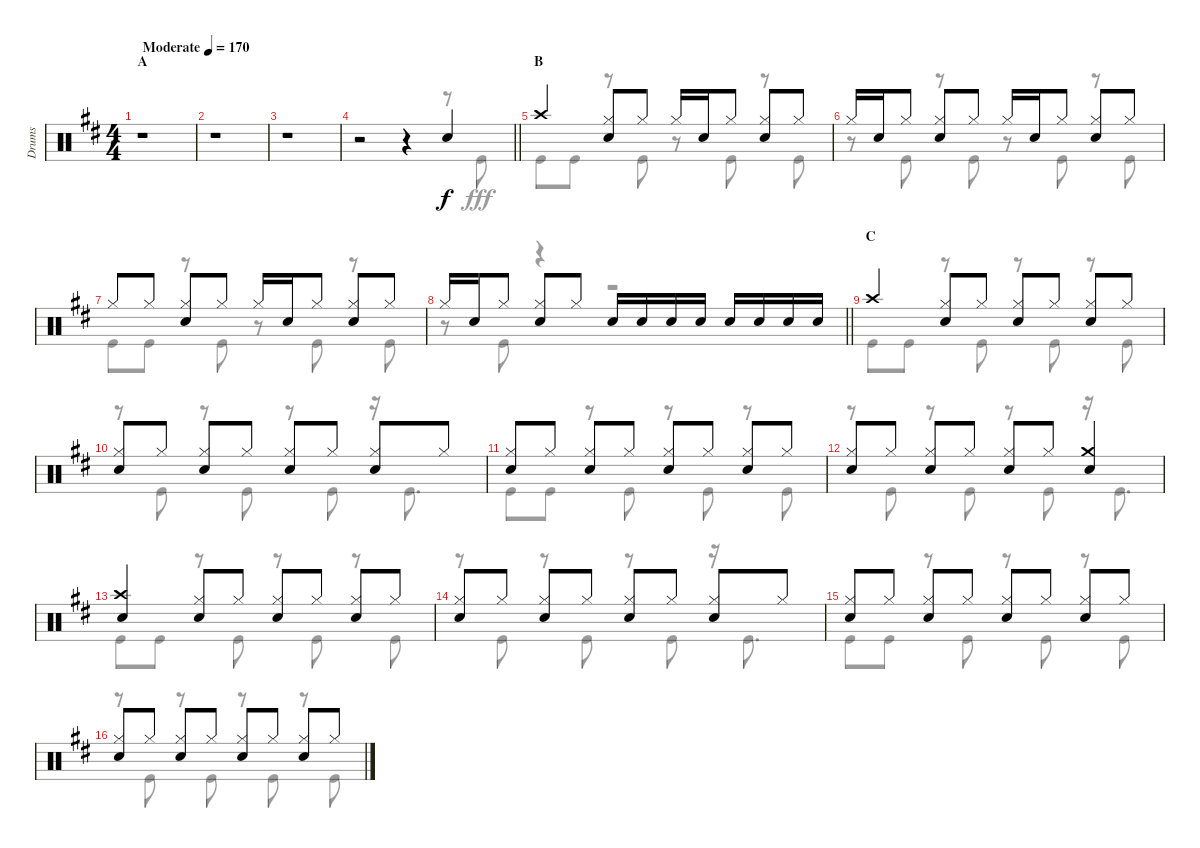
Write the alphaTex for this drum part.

\track ("Drums" "Drums") {instrument percussion}
\staff {score}
\articulation defaults
\voice
\ts (4 4)
\section ("" "A")
\tempo (170 "Moderate")
\clef neutral
\ks d
r.1{dy f} |
r.1 |
r.1 |
\barLineRight lightlight
r.2 r.4 "Snare (hit) 2".4 |
\section ("" "B")
"Crash high (hit)".4 ("Hi-Hat (closed)" "Snare (hit) 2").8 "Hi-Hat (closed)".8 "Hi-Hat (closed)".16 "Snare (hit) 2".16 "Hi-Hat (closed)".8 ("Hi-Hat (closed)" "Snare (hit) 2").8 "Hi-Hat (closed)".8 |
"Hi-Hat (closed)".16 "Snare (hit) 2".16 "Hi-Hat (closed)".8 ("Hi-Hat (closed)" "Snare (hit) 2").8 "Hi-Hat (closed)".8 "Hi-Hat (closed)".16 "Snare (hit) 2".16 "Hi-Hat (closed)".8 ("Hi-Hat (closed)" "Snare (hit) 2").8 "Hi-Hat (closed)".8 |
"Hi-Hat (closed)".8 "Hi-Hat (closed)".8 ("Hi-Hat (closed)" "Snare (hit) 2").8 "Hi-Hat (closed)".8 "Hi-Hat (closed)".16 "Snare (hit) 2".16 "Hi-Hat (closed)".8 ("Hi-Hat (closed)" "Snare (hit) 2").8 "Hi-Hat (closed)".8 |
\barLineRight lightlight "Hi-Hat (closed)".16 "Snare (hit) 2".16 "Hi-Hat (closed)".8
("Hi-Hat (closed)" "Snare (hit) 2").8 "Hi-Hat (closed)".8 "Snare (hit) 2".16 "Snare (hit) 2".16 "Snare (hit) 2".16 "Snare (hit) 2".16 "Snare (hit) 2".16 "Snare (hit) 2".16 "Snare (hit) 2".16 "Snare (hit) 2".16 |
\section ("" "C")
"Crash high (hit)".4 ("Hi-Hat (closed)" "Snare (hit) 2").8 "Hi-Hat (closed)".8 ("Hi-Hat (closed)" "Snare (hit) 2").8 "Hi-Hat (closed)".8 ("Hi-Hat (closed)" "Snare (hit) 2").8 "Hi-Hat (closed)".8 |
("Hi-Hat (closed)" "Snare (hit) 2").8 "Hi-Hat (closed)".8 ("Hi-Hat (closed)" "Snare (hit) 2").8 "Hi-Hat (closed)".8 ("Hi-Hat (closed)" "Snare (hit) 2").8 "Hi-Hat (closed)".8 ("Hi-Hat (closed)" "Snare (hit) 2").8 "Hi-Hat (closed)".8 |
("Hi-Hat (closed)" "Snare (hit) 2").8 "Hi-Hat (closed)".8 ("Hi-Hat (closed)" "Snare (hit) 2").8 "Hi-Hat (closed)".8 ("Hi-Hat (closed)" "Snare (hit) 2").8 "Hi-Hat (closed)".8 ("Hi-Hat (closed)" "Snare (hit) 2").8 "Hi-Hat (closed)".8 |
("Hi-Hat (closed)" "Snare (hit) 2").8 "Hi-Hat (closed)".8 ("Hi-Hat (closed)" "Snare (hit) 2").8 "Hi-Hat (closed)".8 ("Hi-Hat (closed)" "Snare (hit) 2").8 "Hi-Hat (closed)".8 ("Crash medium (hit)" "Snare (hit) 2").4 |
("Crash high (hit)" "Snare (hit) 2").4 ("Hi-Hat (closed)" "Snare (hit) 2").8 "Hi-Hat (closed)".8 ("Hi-Hat (closed)" "Snare (hit) 2").8 "Hi-Hat (closed)".8 ("Hi-Hat (closed)" "Snare (hit) 2").8 "Hi-Hat (closed)".8 |
("Hi-Hat (closed)" "Snare (hit) 2").8 "Hi-Hat (closed)".8 ("Hi-Hat (closed)" "Snare (hit) 2").8 "Hi-Hat (closed)".8 ("Hi-Hat (closed)" "Snare (hit) 2").8 "Hi-Hat (closed)".8 ("Hi-Hat (closed)" "Snare (hit) 2").8 "Hi-Hat (closed)".8 |
("Hi-Hat (closed)" "Snare (hit) 2").8 "Hi-Hat (closed)".8 ("Hi-Hat (closed)" "Snare (hit) 2").8 "Hi-Hat (closed)".8 ("Hi-Hat (closed)" "Snare (hit) 2").8 "Hi-Hat (closed)".8 ("Hi-Hat (closed)" "Snare (hit) 2").8 "Hi-Hat (closed)".8 |
("Hi-Hat (closed)" "Snare (hit) 2").8 "Hi-Hat (closed)".8 ("Hi-Hat (closed)" "Snare (hit) 2").8 "Hi-Hat (closed)".8 ("Hi-Hat (closed)" "Snare (hit) 2").8 "Hi-Hat (closed)".8 ("Hi-Hat (closed)" "Snare (hit) 2").8 "Hi-Hat (closed)".8
\voice
\clef neutral
\ottava regular
\simile none
\ks d
r.1{dy fff} |
r.1 |
r.1 |
\barLineRight lightlight
r.2 r.4 r.8 "Kick (hit)".8 |
"Kick (hit)".8 "Kick (hit)".8 r.8 "Kick (hit)".8 r.8 "Kick (hit)".8 r.8 "Kick (hit)".8 |
r.8 "Kick (hit)".8 r.8 "Kick (hit)".8 r.8 "Kick (hit)".8 r.8 "Kick (hit)".8 |
"Kick (hit)".8 "Kick (hit)".8 r.8 "Kick (hit)".8 r.8 "Kick (hit)".8 r.8 "Kick (hit)".8 |
\barLineRight lightlight
r.8 "Kick (hit)".8 r.4 r.2 |
"Kick (hit)".8 "Kick (hit)".8 r.8 "Kick (hit)".8 r.8 "Kick (hit)".8 r.8 "Kick (hit)".8 |
r.8 "Kick (hit)".8 r.8 "Kick (hit)".8 r.8 "Kick (hit)".8 r.16 "Kick (hit)".8{d} |
"Kick (hit)".8 "Kick (hit)".8 r.8 "Kick (hit)".8 r.8 "Kick (hit)".8 r.8 "Kick (hit)".8 |
r.8 "Kick (hit)".8 r.8 "Kick (hit)".8 r.8 "Kick (hit)".8 r.16 "Kick (hit)".8{d} |
"Kick (hit)".8 "Kick (hit)".8 r.8 "Kick (hit)".8 r.8 "Kick (hit)".8 r.8 "Kick (hit)".8 |
r.8 "Kick (hit)".8 r.8 "Kick (hit)".8 r.8 "Kick (hit)".8 r.16 "Kick (hit)".8{d} |
"Kick (hit)".8 "Kick (hit)".8 r.8 "Kick (hit)".8 r.8 "Kick (hit)".8 r.8 "Kick (hit)".8 |
r.8 "Kick (hit)".8 r.8 "Kick (hit)".8 r.8 "Kick (hit)".8 r.8 "Kick (hit)".8
